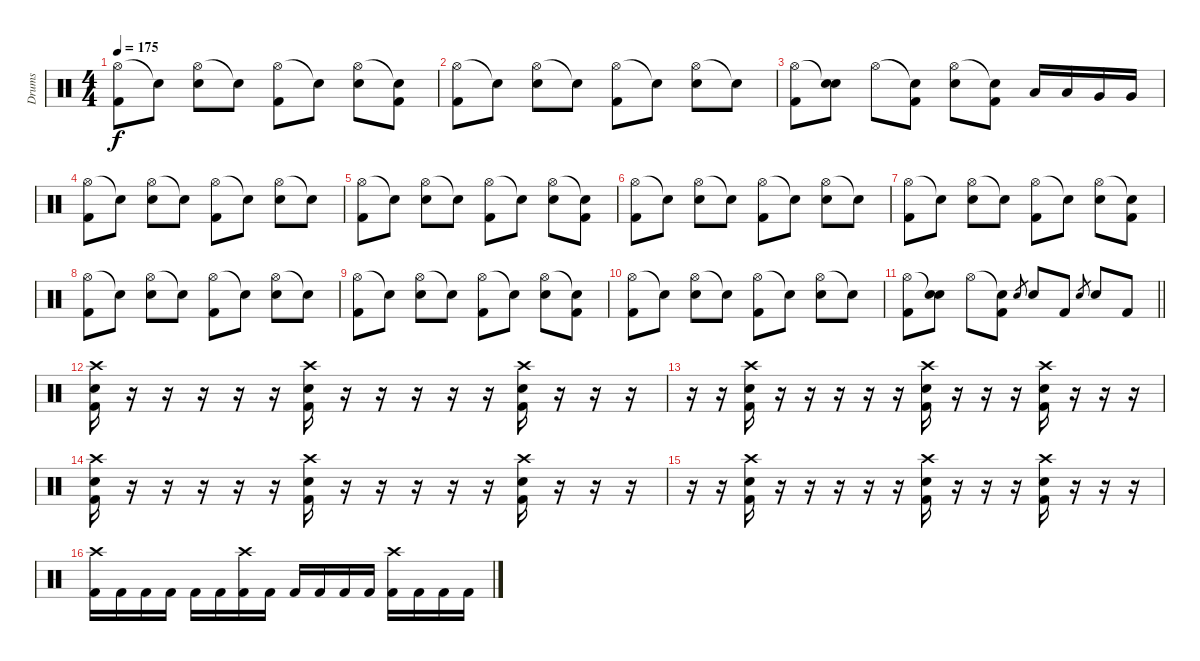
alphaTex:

\track ("Drums" "Drums") {instrument percussion}
\staff {score}
\articulation defaults
\ts (4 4)
\tempo 175
\clef neutral
\ks c
("Hi-Hat (open)" "Kick (hit) 2").8{dy f} "Snare (hit)"{t}.8 ("Hi-Hat (open)" "Electric Snare (hit)").8 "Snare (hit)"{t}.8 ("Hi-Hat (open)" "Kick (hit) 2").8 "Snare (hit)"{t}.8 ("Hi-Hat (open)" "Electric Snare (hit)").8 ("Snare (hit)"{t} "Kick (hit) 2").8 |
("Hi-Hat (open)" "Kick (hit) 2").8 "Snare (hit)"{t}.8 ("Hi-Hat (open)" "Electric Snare (hit)").8 "Snare (hit)"{t}.8 ("Hi-Hat (open)" "Kick (hit) 2").8 "Snare (hit)"{t}.8 ("Hi-Hat (open)" "Electric Snare (hit)").8 "Snare (hit)"{t}.8 |
("Hi-Hat (open)" "Kick (hit) 2").8 ("Snare (hit)"{t} "Electric Snare (hit)").8 "Hi-Hat (open)".8 ("Snare (hit)"{t} "Kick (hit) 2").8 ("Hi-Hat (open)" "Electric Snare (hit)").8 ("Snare (hit)"{t} "Kick (hit) 2").8 "Low Tom (hit)".16 "Low Tom (hit)".16 "Very Low Tom (hit)".16 "Very Low Tom (hit)".16 |
("Hi-Hat (open)" "Kick (hit) 2").8 "Snare (hit)"{t}.8 ("Hi-Hat (open)" "Electric Snare (hit)").8 "Snare (hit)"{t}.8 ("Hi-Hat (open)" "Kick (hit) 2").8 "Snare (hit)"{t}.8 ("Hi-Hat (open)" "Electric Snare (hit)").8 "Snare (hit)"{t}.8 |
("Hi-Hat (open)" "Kick (hit) 2").8 "Snare (hit)"{t}.8 ("Hi-Hat (open)" "Electric Snare (hit)").8 "Snare (hit)"{t}.8 ("Hi-Hat (open)" "Kick (hit) 2").8 "Snare (hit)"{t}.8 ("Hi-Hat (open)" "Electric Snare (hit)").8 ("Snare (hit)"{t} "Kick (hit) 2").8 |
("Hi-Hat (open)" "Kick (hit) 2").8 "Snare (hit)"{t}.8 ("Hi-Hat (open)" "Electric Snare (hit)").8 "Snare (hit)"{t}.8 ("Hi-Hat (open)" "Kick (hit) 2").8 "Snare (hit)"{t}.8 ("Hi-Hat (open)" "Electric Snare (hit)").8 "Snare (hit)"{t}.8 |
("Hi-Hat (open)" "Kick (hit) 2").8 "Snare (hit)"{t}.8 ("Hi-Hat (open)" "Electric Snare (hit)").8 "Snare (hit)"{t}.8 ("Hi-Hat (open)" "Kick (hit) 2").8 "Snare (hit)"{t}.8 ("Hi-Hat (open)" "Electric Snare (hit)").8 ("Snare (hit)"{t} "Kick (hit) 2").8 |
("Hi-Hat (open)" "Kick (hit) 2").8 "Snare (hit)"{t}.8 ("Hi-Hat (open)" "Electric Snare (hit)").8 "Snare (hit)"{t}.8 ("Hi-Hat (open)" "Kick (hit) 2").8 "Snare (hit)"{t}.8 ("Hi-Hat (open)" "Electric Snare (hit)").8 "Snare (hit)"{t}.8 |
("Hi-Hat (open)" "Kick (hit) 2").8 "Snare (hit)"{t}.8 ("Hi-Hat (open)" "Electric Snare (hit)").8 "Snare (hit)"{t}.8 ("Hi-Hat (open)" "Kick (hit) 2").8 "Snare (hit)"{t}.8 ("Hi-Hat (open)" "Electric Snare (hit)").8 ("Snare (hit)"{t} "Kick (hit) 2").8 |
("Hi-Hat (open)" "Kick (hit) 2").8 "Snare (hit)"{t}.8 ("Hi-Hat (open)" "Electric Snare (hit)").8 "Snare (hit)"{t}.8 ("Hi-Hat (open)" "Kick (hit) 2").8 "Snare (hit)"{t}.8 ("Hi-Hat (open)" "Electric Snare (hit)").8 "Snare (hit)"{t}.8 |
\barLineRight lightlight
("Hi-Hat (open)" "Kick (hit) 2").8 ("Snare (hit)"{t} "Electric Snare (hit)").8 "Hi-Hat (open)".8 ("Snare (hit)"{t} "Kick (hit) 2").8 "Electric Snare (hit)".8{gr} "Electric Snare (hit)".8 "Kick (hit) 2".8 "Electric Snare (hit)".8{gr} "Electric Snare (hit)".8 "Kick (hit) 2".8 |
("Crash high (hit)" "Snare (hit) 2" "Kick (hit) 2").16 r.16 r.16 r.16 r.16 r.16 ("Crash high (hit)" "Snare (hit) 2" "Kick (hit) 2").16 r.16 r.16 r.16 r.16 r.16 ("Crash high (hit)" "Snare (hit) 2" "Kick (hit) 2").16 r.16 r.16 r.16 |
r.16 r.16 ("Crash high (hit)" "Snare (hit) 2" "Kick (hit) 2").16 r.16 r.16 r.16 r.16 r.16 ("Crash high (hit)" "Snare (hit) 2" "Kick (hit) 2").16 r.16 r.16 r.16 ("Crash high (hit)" "Snare (hit) 2" "Kick (hit) 2").16 r.16 r.16 r.16 |
("Crash high (hit)" "Snare (hit) 2" "Kick (hit) 2").16 r.16 r.16 r.16 r.16 r.16 ("Crash high (hit)" "Snare (hit) 2" "Kick (hit) 2").16 r.16 r.16 r.16 r.16 r.16 ("Crash high (hit)" "Snare (hit) 2" "Kick (hit) 2").16 r.16 r.16 r.16 |
r.16 r.16 ("Crash high (hit)" "Snare (hit) 2" "Kick (hit) 2").16 r.16 r.16 r.16 r.16 r.16 ("Crash high (hit)" "Snare (hit) 2" "Kick (hit) 2").16 r.16 r.16 r.16 ("Crash high (hit)" "Snare (hit) 2" "Kick (hit) 2").16 r.16 r.16 r.16 |
("Crash high (hit)" "Kick (hit) 2").16 "Kick (hit) 2".16 "Kick (hit) 2".16 "Kick (hit) 2".16 "Kick (hit) 2".16 "Kick (hit) 2".16 ("Crash high (hit)" "Kick (hit) 2").16 "Kick (hit) 2".16 "Kick (hit) 2".16 "Kick (hit) 2".16 "Kick (hit) 2".16 "Kick (hit) 2".16 ("Crash high (hit)" "Kick (hit) 2").16 "Kick (hit) 2".16 "Kick (hit) 2".16 "Kick (hit) 2".16
